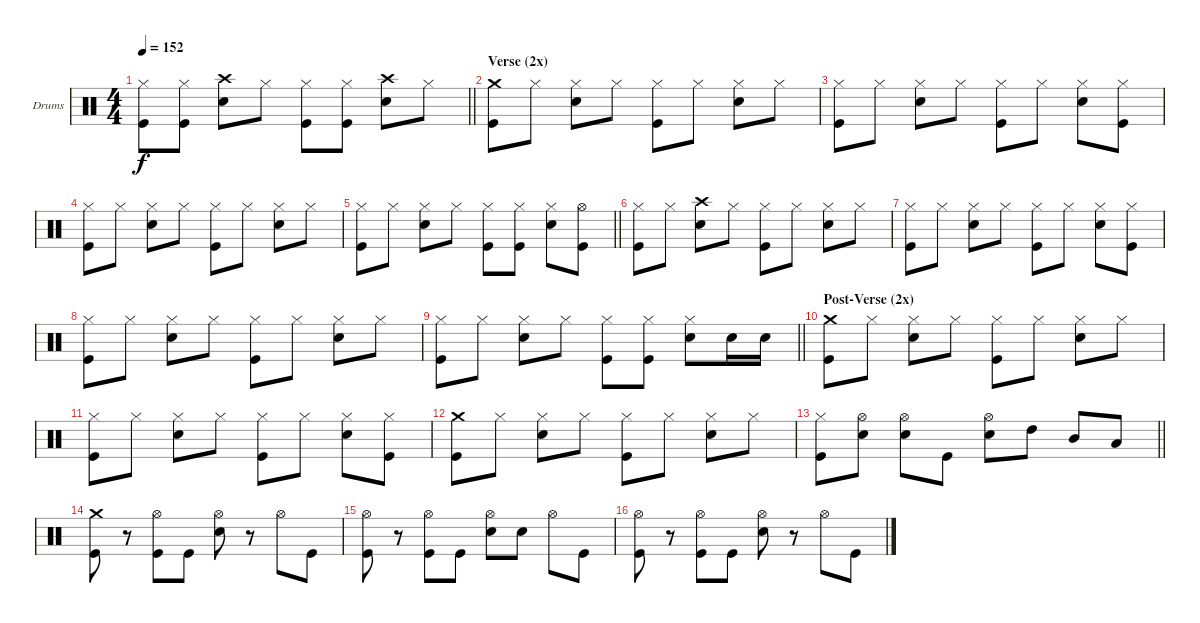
\bracketExtendMode groupsimilarinstruments
\firstSystemTrackNameOrientation horizontal
\otherSystemsTrackNameOrientation horizontal
\track ("Drumkit" "Drums") {instrument percussion}
\staff {score}
\articulation defaults
\ts (4 4)
\tempo 152
\clef neutral
\barLineRight lightlight
\ks c
("Hi-Hat (closed)" "Kick (hit)").8{dy f} ("Hi-Hat (closed)" "Kick (hit)").8 ("Crash high (hit)" "Snare (hit) 2").8 "Hi-Hat (closed)".8 ("Hi-Hat (closed)" "Kick (hit)").8 ("Hi-Hat (closed)" "Kick (hit)").8 ("Crash high (hit)" "Snare (hit) 2").8 "Hi-Hat (closed)".8 |
\section ("" "Verse (2x)")
("Crash medium (hit)" "Kick (hit)").8 "Hi-Hat (closed)".8 ("Hi-Hat (closed)" "Snare (hit) 2").8 "Hi-Hat (closed)".8 ("Hi-Hat (closed)" "Kick (hit)").8 "Hi-Hat (closed)".8 ("Hi-Hat (closed)" "Snare (hit) 2").8 "Hi-Hat (closed)".8 |
("Hi-Hat (closed)" "Kick (hit)").8 "Hi-Hat (closed)".8 ("Hi-Hat (closed)" "Snare (hit) 2").8 "Hi-Hat (closed)".8 ("Hi-Hat (closed)" "Kick (hit)").8 "Hi-Hat (closed)".8 ("Hi-Hat (closed)" "Snare (hit) 2").8 ("Hi-Hat (closed)" "Kick (hit)").8 |
("Hi-Hat (closed)" "Kick (hit)").8 "Hi-Hat (closed)".8 ("Hi-Hat (closed)" "Snare (hit) 2").8 "Hi-Hat (closed)".8 ("Hi-Hat (closed)" "Kick (hit)").8 "Hi-Hat (closed)".8 ("Hi-Hat (closed)" "Snare (hit) 2").8 "Hi-Hat (closed)".8 |
\barLineRight lightlight
("Hi-Hat (closed)" "Kick (hit)").8 "Hi-Hat (closed)".8 ("Hi-Hat (closed)" "Snare (hit) 2").8 "Hi-Hat (closed)".8 ("Hi-Hat (closed)" "Kick (hit)").8 ("Hi-Hat (closed)" "Kick (hit)").8 ("Hi-Hat (closed)" "Snare (hit) 2").8 ("Hi-Hat (open)" "Kick (hit)").8 |
("Hi-Hat (closed)" "Kick (hit)").8 "Hi-Hat (closed)".8 ("Crash high (hit)" "Snare (hit) 2").8 "Hi-Hat (closed)".8 ("Hi-Hat (closed)" "Kick (hit)").8 "Hi-Hat (closed)".8 ("Hi-Hat (closed)" "Snare (hit) 2").8 "Hi-Hat (closed)".8 |
("Hi-Hat (closed)" "Kick (hit)").8 "Hi-Hat (closed)".8 ("Hi-Hat (closed)" "Snare (hit) 2").8 "Hi-Hat (closed)".8 ("Hi-Hat (closed)" "Kick (hit)").8 "Hi-Hat (closed)".8 ("Hi-Hat (closed)" "Snare (hit) 2").8 ("Hi-Hat (closed)" "Kick (hit)").8 |
("Hi-Hat (closed)" "Kick (hit)").8 "Hi-Hat (closed)".8 ("Hi-Hat (closed)" "Snare (hit) 2").8 "Hi-Hat (closed)".8 ("Hi-Hat (closed)" "Kick (hit)").8 "Hi-Hat (closed)".8 ("Hi-Hat (closed)" "Snare (hit) 2").8 "Hi-Hat (closed)".8 |
\barLineRight lightlight
("Hi-Hat (closed)" "Kick (hit)").8 "Hi-Hat (closed)".8 ("Hi-Hat (closed)" "Snare (hit) 2").8 "Hi-Hat (closed)".8 ("Hi-Hat (closed)" "Kick (hit)").8 ("Hi-Hat (closed)" "Kick (hit)").8 ("Hi-Hat (closed)" "Snare (hit) 2").8 "Snare (hit) 2".16 "Snare (hit) 2".16 |
\section ("" "Post-Verse (2x)")
("Crash medium (hit)" "Kick (hit)").8 "Hi-Hat (closed)".8 ("Hi-Hat (closed)" "Snare (hit) 2").8 "Hi-Hat (closed)".8 ("Hi-Hat (closed)" "Kick (hit)").8 "Hi-Hat (closed)".8 ("Hi-Hat (closed)" "Snare (hit) 2").8 "Hi-Hat (closed)".8 |
("Hi-Hat (closed)" "Kick (hit)").8 "Hi-Hat (closed)".8 ("Hi-Hat (closed)" "Snare (hit) 2").8 "Hi-Hat (closed)".8 ("Hi-Hat (closed)" "Kick (hit)").8 "Hi-Hat (closed)".8 ("Hi-Hat (closed)" "Snare (hit) 2").8 ("Hi-Hat (closed)" "Kick (hit)").8 |
("Crash medium (hit)" "Kick (hit)").8 "Hi-Hat (closed)".8 ("Hi-Hat (closed)" "Snare (hit) 2").8 "Hi-Hat (closed)".8 ("Hi-Hat (closed)" "Kick (hit)").8 "Hi-Hat (closed)".8 ("Hi-Hat (closed)" "Snare (hit) 2").8 "Hi-Hat (closed)".8 |
\barLineRight lightlight
("Hi-Hat (closed)" "Kick (hit)").8 ("Hi-Hat (open)" "Snare (hit) 2").8 ("Hi-Hat (open)" "Snare (hit) 2").8 "Kick (hit)".8 ("Hi-Hat (open)" "Snare (hit) 2").8 "High Tom (hit)".8 "Mid Tom (hit)".8 "Low Tom (hit)".8 |
("Crash medium (hit)" "Kick (hit)").8 r.8 ("Hi-Hat (open)" "Kick (hit)").8 "Kick (hit)".8 ("Hi-Hat (open)" "Snare (hit) 2").8 r.8 "Hi-Hat (open)".8 "Kick (hit)".8 |
("Hi-Hat (open)" "Kick (hit)").8 r.8 ("Hi-Hat (open)" "Kick (hit)").8 "Kick (hit)".8 ("Hi-Hat (open)" "Snare (hit) 2").8 "Snare (hit) 2".8 "Hi-Hat (open)".8 "Kick (hit)".8 |
("Hi-Hat (open)" "Kick (hit)").8 r.8 ("Hi-Hat (open)" "Kick (hit)").8 "Kick (hit)".8 ("Hi-Hat (open)" "Snare (hit) 2").8 r.8 "Hi-Hat (open)".8 "Kick (hit)".8
